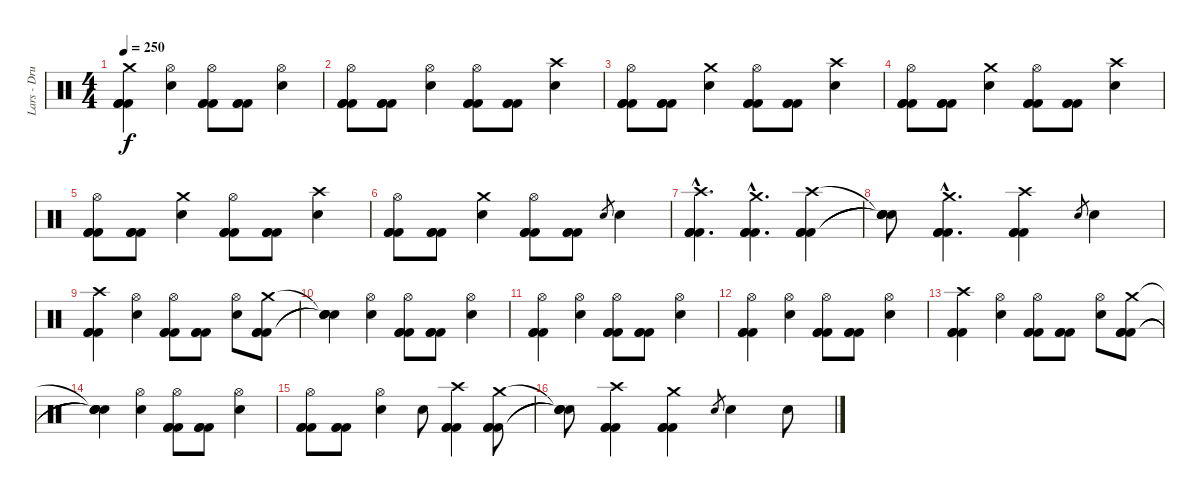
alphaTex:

\track ("Lars - Drums" "Lars - Dru") {instrument percussion}
\staff {score}
\articulation defaults
\ts (4 4)
\tempo 250
\clef neutral
\ks c
("Crash medium (hit)" "Kick (hit) 2" "Kick (hit) 2" "Kick (hit) 2").4{dy f} ("Hi-Hat (open)" "Snare (hit) 2").4 ("Hi-Hat (open)" "Kick (hit) 2" "Kick (hit) 2" "Kick (hit) 2").8 ("Kick (hit) 2" "Kick (hit) 2" "Kick (hit) 2").8 ("Hi-Hat (open)" "Snare (hit) 2").4 |
("Hi-Hat (open)" "Kick (hit) 2" "Kick (hit) 2" "Kick (hit) 2").8 ("Kick (hit) 2" "Kick (hit) 2" "Kick (hit) 2").8 ("Hi-Hat (open)" "Snare (hit) 2").4 ("Hi-Hat (open)" "Kick (hit) 2" "Kick (hit) 2" "Kick (hit) 2").8 ("Kick (hit) 2" "Kick (hit) 2" "Kick (hit) 2").8 ("Crash high (hit)" "Snare (hit) 2").4 |
("Hi-Hat (open)" "Kick (hit) 2" "Kick (hit) 2" "Kick (hit) 2").8 ("Kick (hit) 2" "Kick (hit) 2" "Kick (hit) 2").8 ("Crash medium (hit)" "Snare (hit) 2").4 ("Hi-Hat (open)" "Kick (hit) 2" "Kick (hit) 2" "Kick (hit) 2").8 ("Kick (hit) 2" "Kick (hit) 2" "Kick (hit) 2").8 ("Crash high (hit)" "Snare (hit) 2").4 |
("Hi-Hat (open)" "Kick (hit) 2" "Kick (hit) 2" "Kick (hit) 2").8 ("Kick (hit) 2" "Kick (hit) 2" "Kick (hit) 2").8 ("Crash medium (hit)" "Snare (hit) 2").4 ("Hi-Hat (open)" "Kick (hit) 2" "Kick (hit) 2" "Kick (hit) 2").8 ("Kick (hit) 2" "Kick (hit) 2" "Kick (hit) 2").8 ("Crash high (hit)" "Snare (hit) 2").4 |
("Hi-Hat (open)" "Kick (hit) 2" "Kick (hit) 2" "Kick (hit) 2").8 ("Kick (hit) 2" "Kick (hit) 2" "Kick (hit) 2").8 ("Crash medium (hit)" "Snare (hit) 2").4 ("Hi-Hat (open)" "Kick (hit) 2" "Kick (hit) 2" "Kick (hit) 2").8 ("Kick (hit) 2" "Kick (hit) 2" "Kick (hit) 2").8 ("Crash high (hit)" "Snare (hit) 2").4 |
("Hi-Hat (open)" "Kick (hit) 2" "Kick (hit) 2" "Kick (hit) 2").8 ("Kick (hit) 2" "Kick (hit) 2" "Kick (hit) 2").8 ("Crash medium (hit)" "Snare (hit) 2").4 ("Hi-Hat (open)" "Kick (hit) 2" "Kick (hit) 2" "Kick (hit) 2").8 ("Kick (hit) 2" "Kick (hit) 2" "Kick (hit) 2").8 "Snare (hit) 2".8{gr} "Snare (hit) 2".4 |
("Crash high (hit)"{hac} "Kick (hit) 2"{hac} "Kick (hit) 2"{hac} "Kick (hit) 2"{hac}).4{d} ("Crash medium (hit)"{hac} "Kick (hit) 2"{hac} "Kick (hit) 2"{hac} "Kick (hit) 2"{hac}).4{d} ("Crash high (hit)" "Kick (hit) 2" "Kick (hit) 2" "Kick (hit) 2").4 |
("Snare (hit)"{t} "Snare (hit)"{t} "Snare (hit)"{t} "Snare (hit)"{t}).8 ("Crash medium (hit)"{hac} "Kick (hit) 2"{hac} "Kick (hit) 2"{hac} "Kick (hit) 2"{hac}).4{d} ("Crash high (hit)" "Kick (hit) 2" "Kick (hit) 2" "Kick (hit) 2").4 "Snare (hit) 2".8{gr} "Snare (hit) 2".4 |
("Crash high (hit)" "Kick (hit) 2" "Kick (hit) 2" "Kick (hit) 2").4 ("Hi-Hat (open)" "Snare (hit) 2").4 ("Hi-Hat (open)" "Kick (hit) 2" "Kick (hit) 2" "Kick (hit) 2").8 ("Kick (hit) 2" "Kick (hit) 2" "Kick (hit) 2").8 ("Hi-Hat (open)" "Snare (hit) 2").8 ("Crash medium (hit)" "Kick (hit) 2" "Kick (hit) 2" "Kick (hit) 2").8 |
("Snare (hit)"{t} "Snare (hit)"{t} "Snare (hit)"{t} "Snare (hit)"{t}).4 ("Hi-Hat (open)" "Snare (hit) 2").4 ("Hi-Hat (open)" "Kick (hit) 2" "Kick (hit) 2" "Kick (hit) 2").8 ("Kick (hit) 2" "Kick (hit) 2" "Kick (hit) 2").8 ("Hi-Hat (open)" "Snare (hit) 2").4 |
("Hi-Hat (open)" "Kick (hit) 2" "Kick (hit) 2" "Kick (hit) 2").4 ("Hi-Hat (open)" "Snare (hit) 2").4 ("Hi-Hat (open)" "Kick (hit) 2" "Kick (hit) 2" "Kick (hit) 2").8 ("Kick (hit) 2" "Kick (hit) 2" "Kick (hit) 2").8 ("Hi-Hat (open)" "Snare (hit) 2").4 |
("Hi-Hat (open)" "Kick (hit) 2" "Kick (hit) 2" "Kick (hit) 2").4 ("Hi-Hat (open)" "Snare (hit) 2").4 ("Hi-Hat (open)" "Kick (hit) 2" "Kick (hit) 2" "Kick (hit) 2").8 ("Kick (hit) 2" "Kick (hit) 2" "Kick (hit) 2").8 ("Hi-Hat (open)" "Snare (hit) 2").4 |
("Crash high (hit)" "Kick (hit) 2" "Kick (hit) 2" "Kick (hit) 2").4 ("Hi-Hat (open)" "Snare (hit) 2").4 ("Hi-Hat (open)" "Kick (hit) 2" "Kick (hit) 2" "Kick (hit) 2").8 ("Kick (hit) 2" "Kick (hit) 2" "Kick (hit) 2").8 ("Hi-Hat (open)" "Snare (hit) 2").8 ("Crash medium (hit)" "Kick (hit) 2" "Kick (hit) 2" "Kick (hit) 2").8 |
("Snare (hit)"{t} "Snare (hit)"{t} "Snare (hit)"{t} "Snare (hit)"{t}).4 ("Hi-Hat (open)" "Snare (hit) 2").4 ("Hi-Hat (open)" "Kick (hit) 2" "Kick (hit) 2" "Kick (hit) 2").8 ("Kick (hit) 2" "Kick (hit) 2" "Kick (hit) 2").8 ("Hi-Hat (open)" "Snare (hit) 2").4 |
("Hi-Hat (open)" "Kick (hit) 2" "Kick (hit) 2" "Kick (hit) 2").8 ("Kick (hit) 2" "Kick (hit) 2" "Kick (hit) 2").8 ("Hi-Hat (open)" "Snare (hit) 2").4 "Snare (hit) 2".8 ("Crash high (hit)" "Kick (hit) 2" "Kick (hit) 2" "Kick (hit) 2").4 ("Crash medium (hit)" "Kick (hit) 2" "Kick (hit) 2" "Kick (hit) 2").8 |
("Snare (hit)"{t} "Snare (hit)"{t} "Snare (hit)"{t} "Snare (hit)"{t}).8 ("Crash high (hit)" "Kick (hit) 2" "Kick (hit) 2" "Kick (hit) 2").4 ("Crash medium (hit)" "Kick (hit) 2" "Kick (hit) 2" "Kick (hit) 2").4 "Snare (hit) 2".8{gr} "Snare (hit) 2".4 "Snare (hit) 2".8
